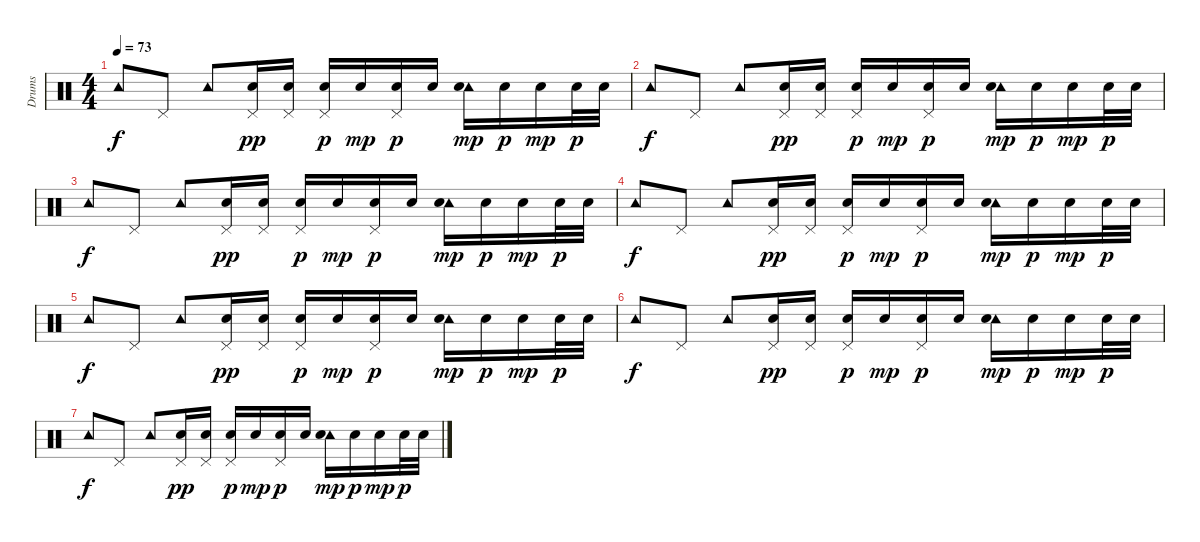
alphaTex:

\track ("Drums" "Drums") {instrument percussion}
\staff {score}
\articulation defaults
\ts (4 4)
\tempo 73
\clef neutral
\ks c "Tambourine (hit)".8{dy f} "Pedal Hi-Hat (hit)".8 "Tambourine (hit)".8
("Pedal Hi-Hat (hit)" "Snare (hit) 2").16{dy pp} ("Pedal Hi-Hat (hit)" "Snare (hit) 2").16 ("Pedal Hi-Hat (hit)" "Snare (hit) 2").16{dy p} "Snare (hit) 2".16{dy mp} ("Pedal Hi-Hat (hit)" "Snare (hit) 2").16{dy p} "Snare (hit) 2".16 ("Tambourine (hit)" "Snare (hit) 2").16{dy mp} "Snare (hit) 2".16{dy p} "Snare (hit) 2".16{dy mp} "Snare (hit) 2".32{dy p} "Snare (hit) 2".32 |
"Tambourine (hit)".8{dy f volume 4} "Pedal Hi-Hat (hit)".8 "Tambourine (hit)".8 ("Pedal Hi-Hat (hit)" "Snare (hit) 2").16{dy pp} ("Pedal Hi-Hat (hit)" "Snare (hit) 2").16 ("Pedal Hi-Hat (hit)" "Snare (hit) 2").16{dy p} "Snare (hit) 2".16{dy mp} ("Pedal Hi-Hat (hit)" "Snare (hit) 2").16{dy p} "Snare (hit) 2".16 ("Tambourine (hit)" "Snare (hit) 2").16{dy mp} "Snare (hit) 2".16{dy p} "Snare (hit) 2".16{dy mp} "Snare (hit) 2".32{dy p} "Snare (hit) 2".32 |
"Tambourine (hit)".8{dy f} "Pedal Hi-Hat (hit)".8 "Tambourine (hit)".8 ("Pedal Hi-Hat (hit)" "Snare (hit) 2").16{dy pp} ("Pedal Hi-Hat (hit)" "Snare (hit) 2").16 ("Pedal Hi-Hat (hit)" "Snare (hit) 2").16{dy p} "Snare (hit) 2".16{dy mp} ("Pedal Hi-Hat (hit)" "Snare (hit) 2").16{dy p} "Snare (hit) 2".16 ("Tambourine (hit)" "Snare (hit) 2").16{dy mp} "Snare (hit) 2".16{dy p} "Snare (hit) 2".16{dy mp} "Snare (hit) 2".32{dy p} "Snare (hit) 2".32 |
"Tambourine (hit)".8{dy f volume 3} "Pedal Hi-Hat (hit)".8 "Tambourine (hit)".8 ("Pedal Hi-Hat (hit)" "Snare (hit) 2").16{dy pp} ("Pedal Hi-Hat (hit)" "Snare (hit) 2").16 ("Pedal Hi-Hat (hit)" "Snare (hit) 2").16{dy p} "Snare (hit) 2".16{dy mp} ("Pedal Hi-Hat (hit)" "Snare (hit) 2").16{dy p} "Snare (hit) 2".16 ("Tambourine (hit)" "Snare (hit) 2").16{dy mp} "Snare (hit) 2".16{dy p} "Snare (hit) 2".16{dy mp} "Snare (hit) 2".32{dy p} "Snare (hit) 2".32 |
"Tambourine (hit)".8{dy f} "Pedal Hi-Hat (hit)".8 "Tambourine (hit)".8 ("Pedal Hi-Hat (hit)" "Snare (hit) 2").16{dy pp} ("Pedal Hi-Hat (hit)" "Snare (hit) 2").16 ("Pedal Hi-Hat (hit)" "Snare (hit) 2").16{dy p} "Snare (hit) 2".16{dy mp} ("Pedal Hi-Hat (hit)" "Snare (hit) 2").16{dy p} "Snare (hit) 2".16 ("Tambourine (hit)" "Snare (hit) 2").16{dy mp} "Snare (hit) 2".16{dy p} "Snare (hit) 2".16{dy mp} "Snare (hit) 2".32{dy p} "Snare (hit) 2".32 |
"Tambourine (hit)".8{dy f volume 1} "Pedal Hi-Hat (hit)".8 "Tambourine (hit)".8 ("Pedal Hi-Hat (hit)" "Snare (hit) 2").16{dy pp} ("Pedal Hi-Hat (hit)" "Snare (hit) 2").16 ("Pedal Hi-Hat (hit)" "Snare (hit) 2").16{dy p} "Snare (hit) 2".16{dy mp} ("Pedal Hi-Hat (hit)" "Snare (hit) 2").16{dy p} "Snare (hit) 2".16 ("Tambourine (hit)" "Snare (hit) 2").16{dy mp} "Snare (hit) 2".16{dy p} "Snare (hit) 2".16{dy mp} "Snare (hit) 2".32{dy p} "Snare (hit) 2".32 |
"Tambourine (hit)".8{dy f volume 0} "Pedal Hi-Hat (hit)".8 "Tambourine (hit)".8 ("Pedal Hi-Hat (hit)" "Snare (hit) 2").16{dy pp} ("Pedal Hi-Hat (hit)" "Snare (hit) 2").16 ("Pedal Hi-Hat (hit)" "Snare (hit) 2").16{dy p volume 0} "Snare (hit) 2".16{dy mp} ("Pedal Hi-Hat (hit)" "Snare (hit) 2").16{dy p} "Snare (hit) 2".16 ("Tambourine (hit)" "Snare (hit) 2").16{dy mp} "Snare (hit) 2".16{dy p} "Snare (hit) 2".16{dy mp} "Snare (hit) 2".32{dy p} "Snare (hit) 2".32
